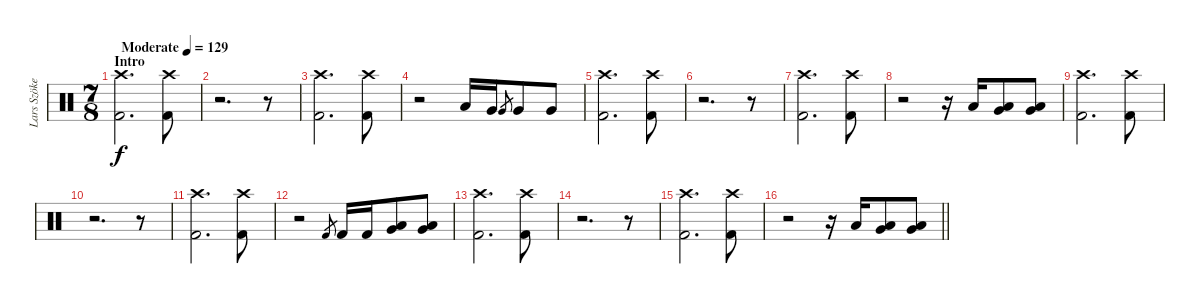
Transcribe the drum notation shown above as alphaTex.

\track ("Lars Szöke" "Lars Szöke") {instrument percussion}
\staff {score}
\articulation defaults
\ts (7 8)
\section ("" "Intro")
\tempo (129 "Moderate")
\clef neutral
\ks c
("Crash high (hit)" "Kick (hit) 2").2{d dy f} ("Crash high (hit)" "Kick (hit) 2").8 |
r.2{d} r.8 |
("Crash high (hit)" "Kick (hit) 2").2{d} ("Crash high (hit)" "Kick (hit) 2").8 |
r.2 "Low Tom (hit)".16 "Very Low Tom (hit)".16 "Very Low Tom (hit)".8{gr} "Very Low Tom (hit)".8 "Very Low Tom (hit)".8 |
("Crash high (hit)" "Kick (hit) 2").2{d} ("Crash high (hit)" "Kick (hit) 2").8 |
r.2{d} r.8 |
("Crash high (hit)" "Kick (hit) 2").2{d} ("Crash high (hit)" "Kick (hit) 2").8 |
r.2 r.16 "Low Tom (hit)".16 ("Very Low Tom (hit)" "Low Floor Tom (hit)").8 ("Very Low Tom (hit)" "Low Floor Tom (hit)").8 |
("Crash high (hit)" "Kick (hit) 2").2{d} ("Crash high (hit)" "Kick (hit) 2").8 |
r.2{d} r.8 |
("Crash high (hit)" "Kick (hit) 2").2{d} ("Crash high (hit)" "Kick (hit) 2").8 |
r.2 "Kick (hit) 2".8{gr} "Kick (hit) 2".16 "Kick (hit) 2".16 ("Very Low Tom (hit)" "Low Floor Tom (hit)").8 ("Very Low Tom (hit)" "Low Floor Tom (hit)").8 |
("Crash high (hit)" "Kick (hit) 2").2{d} ("Crash high (hit)" "Kick (hit) 2").8 |
r.2{d} r.8 |
("Crash high (hit)" "Kick (hit) 2").2{d} ("Crash high (hit)" "Kick (hit) 2").8 |
\barLineRight lightlight
r.2 r.16 "Low Tom (hit)".16 ("Very Low Tom (hit)" "Low Floor Tom (hit)").8 ("Very Low Tom (hit)" "Low Floor Tom (hit)").8
